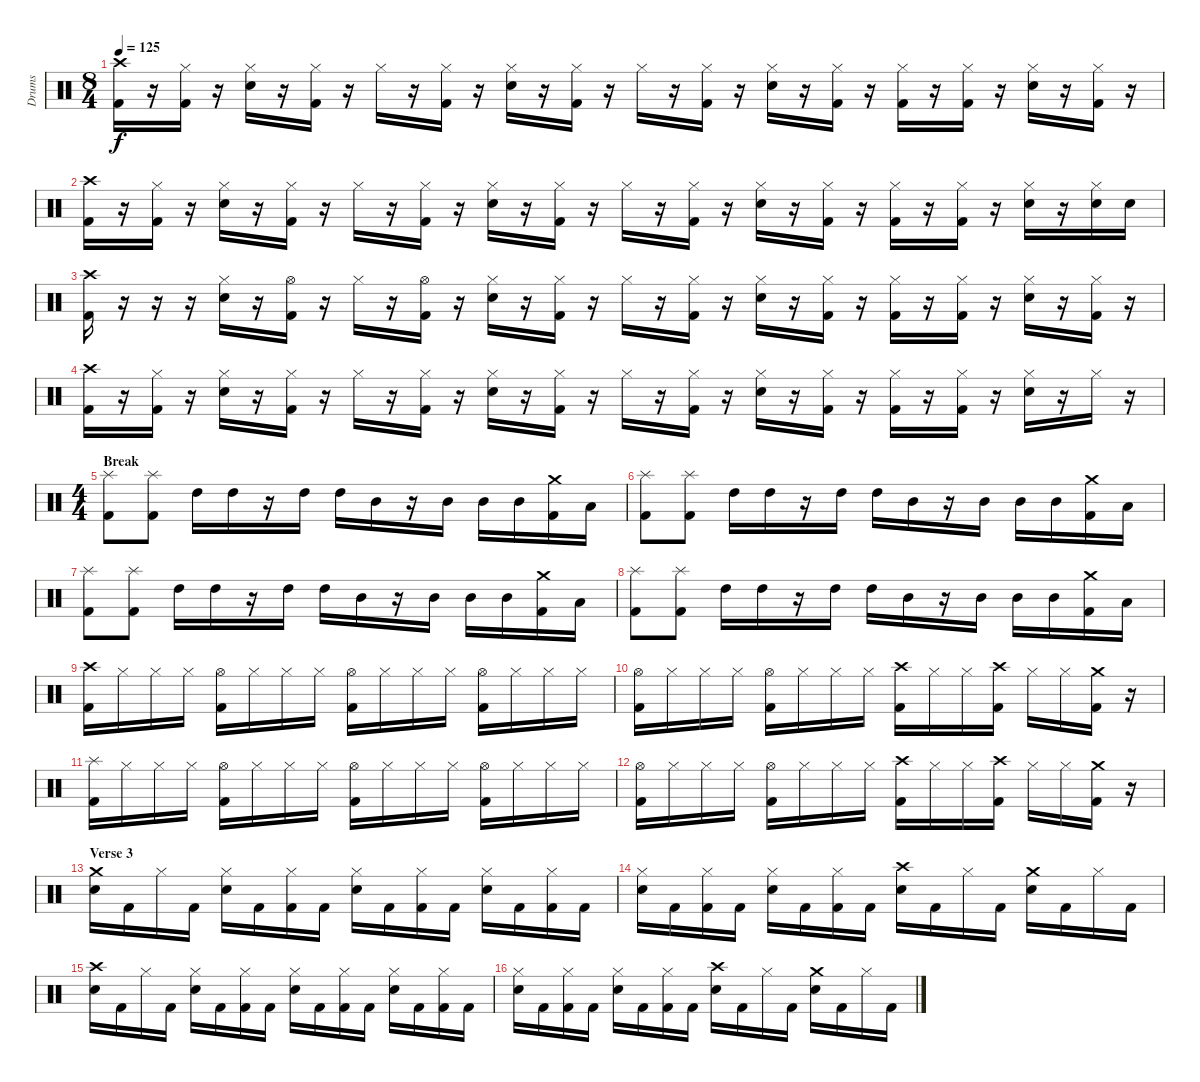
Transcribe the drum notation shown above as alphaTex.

\track ("Drums" "Drums") {instrument percussion}
\staff {score}
\articulation defaults
\ts (8 4)
\tempo 125
\clef neutral
\ks c
("Crash high (hit)" "Kick (hit) 2").16{dy f} r.16 ("Hi-Hat (closed)" "Kick (hit) 2").16 r.16 ("Hi-Hat (closed)" "Electric Snare (hit)").16 r.16 ("Hi-Hat (closed)" "Kick (hit) 2").16 r.16 "Hi-Hat (closed)".16 r.16 ("Hi-Hat (closed)" "Kick (hit) 2").16 r.16 ("Hi-Hat (closed)" "Electric Snare (hit)").16 r.16 ("Hi-Hat (closed)" "Kick (hit) 2").16 r.16 "Hi-Hat (closed)".16 r.16 ("Hi-Hat (closed)" "Kick (hit) 2").16 r.16 ("Hi-Hat (closed)" "Electric Snare (hit)").16 r.16 ("Hi-Hat (closed)" "Kick (hit) 2").16 r.16 ("Hi-Hat (closed)" "Kick (hit) 2").16 r.16 ("Hi-Hat (closed)" "Kick (hit) 2").16 r.16 ("Hi-Hat (closed)" "Electric Snare (hit)").16 r.16 ("Hi-Hat (closed)" "Kick (hit) 2").16 r.16 |
("Crash high (hit)" "Kick (hit) 2").16 r.16 ("Hi-Hat (closed)" "Kick (hit) 2").16 r.16 ("Hi-Hat (closed)" "Electric Snare (hit)").16 r.16 ("Hi-Hat (closed)" "Kick (hit) 2").16 r.16 "Hi-Hat (closed)".16 r.16 ("Hi-Hat (closed)" "Kick (hit) 2").16 r.16 ("Hi-Hat (closed)" "Electric Snare (hit)").16 r.16 ("Hi-Hat (closed)" "Kick (hit) 2").16 r.16 "Hi-Hat (closed)".16 r.16 ("Hi-Hat (closed)" "Kick (hit) 2").16 r.16 ("Hi-Hat (closed)" "Electric Snare (hit)").16 r.16 ("Hi-Hat (closed)" "Kick (hit) 2").16 r.16 ("Hi-Hat (closed)" "Kick (hit) 2").16 r.16 ("Hi-Hat (closed)" "Kick (hit) 2").16 r.16 ("Hi-Hat (closed)" "Electric Snare (hit)").16 r.16 ("Hi-Hat (closed)" "Electric Snare (hit)").16 "Electric Snare (hit)".16 |
("Crash high (hit)" "Kick (hit) 2").16 r.16 r.16 r.16 ("Hi-Hat (closed)" "Electric Snare (hit)").16 r.16 ("Hi-Hat (open)" "Kick (hit) 2").16 r.16 "Hi-Hat (closed)".16 r.16 ("Hi-Hat (open)" "Kick (hit) 2").16 r.16 ("Hi-Hat (closed)" "Electric Snare (hit)").16 r.16 ("Hi-Hat (closed)" "Kick (hit) 2").16 r.16 "Hi-Hat (closed)".16 r.16 ("Hi-Hat (closed)" "Kick (hit) 2").16 r.16 ("Hi-Hat (closed)" "Electric Snare (hit)").16 r.16 ("Hi-Hat (closed)" "Kick (hit) 2").16 r.16 ("Hi-Hat (closed)" "Kick (hit) 2").16 r.16 ("Hi-Hat (closed)" "Kick (hit) 2").16 r.16 ("Hi-Hat (closed)" "Electric Snare (hit)").16 r.16 ("Hi-Hat (closed)" "Kick (hit) 2").16 r.16 |
("Crash high (hit)" "Kick (hit) 2").16 r.16 ("Hi-Hat (closed)" "Kick (hit) 2").16 r.16 ("Hi-Hat (closed)" "Electric Snare (hit)").16 r.16 ("Hi-Hat (closed)" "Kick (hit) 2").16 r.16 "Hi-Hat (closed)".16 r.16 ("Hi-Hat (closed)" "Kick (hit) 2").16 r.16 ("Hi-Hat (closed)" "Electric Snare (hit)").16 r.16 ("Hi-Hat (closed)" "Kick (hit) 2").16 r.16 "Hi-Hat (closed)".16 r.16 ("Hi-Hat (closed)" "Kick (hit) 2").16 r.16 ("Hi-Hat (closed)" "Electric Snare (hit)").16 r.16 ("Hi-Hat (closed)" "Kick (hit) 2").16 r.16 ("Hi-Hat (closed)" "Kick (hit) 2").16 r.16 ("Hi-Hat (closed)" "Kick (hit) 2").16 r.16 ("Hi-Hat (closed)" "Electric Snare (hit)").16 r.16 "Hi-Hat (closed)".16 r.16 |
\ts (4 4)
\section ("" "Break")
("Splash (hit)" "Kick (hit) 2").8 ("Splash (hit)" "Kick (hit) 2").8 "High Tom (hit)".16 "High Tom (hit)".16 r.16 "High Tom (hit)".16 "High Tom (hit)".16 "Mid Tom (hit)".16 r.16 "Mid Tom (hit)".16 "Mid Tom (hit)".16 "Mid Tom (hit)".16 ("Crash medium (hit)" "Kick (hit) 2").16 "Low Tom (hit)".16 |
("Splash (hit)" "Kick (hit) 2").8 ("Splash (hit)" "Kick (hit) 2").8 "High Tom (hit)".16 "High Tom (hit)".16 r.16 "High Tom (hit)".16 "High Tom (hit)".16 "Mid Tom (hit)".16 r.16 "Mid Tom (hit)".16 "Mid Tom (hit)".16 "Mid Tom (hit)".16 ("Crash medium (hit)" "Kick (hit) 2").16 "Low Tom (hit)".16 |
("Splash (hit)" "Kick (hit) 2").8 ("Splash (hit)" "Kick (hit) 2").8 "High Tom (hit)".16 "High Tom (hit)".16 r.16 "High Tom (hit)".16 "High Tom (hit)".16 "Mid Tom (hit)".16 r.16 "Mid Tom (hit)".16 "Mid Tom (hit)".16 "Mid Tom (hit)".16 ("Crash medium (hit)" "Kick (hit) 2").16 "Low Tom (hit)".16 |
("Splash (hit)" "Kick (hit) 2").8 ("Splash (hit)" "Kick (hit) 2").8 "High Tom (hit)".16 "High Tom (hit)".16 r.16 "High Tom (hit)".16 "High Tom (hit)".16 "Mid Tom (hit)".16 r.16 "Mid Tom (hit)".16 "Mid Tom (hit)".16 "Mid Tom (hit)".16 ("Crash medium (hit)" "Kick (hit) 2").16 "Low Tom (hit)".16 |
("Crash high (hit)" "Kick (hit) 2").16 "Hi-Hat (closed)".16 "Hi-Hat (closed)".16 "Hi-Hat (closed)".16 ("Hi-Hat (open)" "Kick (hit) 2").16 "Hi-Hat (closed)".16 "Hi-Hat (closed)".16 "Hi-Hat (closed)".16 ("Hi-Hat (open)" "Kick (hit) 2").16 "Hi-Hat (closed)".16 "Hi-Hat (closed)".16 "Hi-Hat (closed)".16 ("Hi-Hat (open)" "Kick (hit) 2").16 "Hi-Hat (closed)".16 "Hi-Hat (closed)".16 "Hi-Hat (closed)".16 |
("Hi-Hat (open)" "Kick (hit) 2").16 "Hi-Hat (closed)".16 "Hi-Hat (closed)".16 "Hi-Hat (closed)".16 ("Hi-Hat (open)" "Kick (hit) 2").16 "Hi-Hat (closed)".16 "Hi-Hat (closed)".16 "Hi-Hat (closed)".16 ("Crash high (hit)" "Kick (hit) 2").16 "Hi-Hat (closed)".16 "Hi-Hat (closed)".16 ("Crash high (hit)" "Kick (hit) 2").16 "Hi-Hat (closed)".16 "Hi-Hat (closed)".16 ("Crash medium (hit)" "Kick (hit) 2").16 r.16 |
("Splash (hit)" "Kick (hit) 2").16 "Hi-Hat (closed)".16 "Hi-Hat (closed)".16 "Hi-Hat (closed)".16 ("Hi-Hat (open)" "Kick (hit) 2").16 "Hi-Hat (closed)".16 "Hi-Hat (closed)".16 "Hi-Hat (closed)".16 ("Hi-Hat (open)" "Kick (hit) 2").16 "Hi-Hat (closed)".16 "Hi-Hat (closed)".16 "Hi-Hat (closed)".16 ("Hi-Hat (open)" "Kick (hit) 2").16 "Hi-Hat (closed)".16 "Hi-Hat (closed)".16 "Hi-Hat (closed)".16 |
("Hi-Hat (open)" "Kick (hit) 2").16 "Hi-Hat (closed)".16 "Hi-Hat (closed)".16 "Hi-Hat (closed)".16 ("Hi-Hat (open)" "Kick (hit) 2").16 "Hi-Hat (closed)".16 "Hi-Hat (closed)".16 "Hi-Hat (closed)".16 ("Crash high (hit)" "Kick (hit) 2").16 "Hi-Hat (closed)".16 "Hi-Hat (closed)".16 ("Crash high (hit)" "Kick (hit) 2").16 "Hi-Hat (closed)".16 "Hi-Hat (closed)".16 ("Crash medium (hit)" "Kick (hit) 2").16 r.16 |
\section ("" "Verse 3")
("Crash medium (hit)" "Electric Snare (hit)").16 "Kick (hit) 2".16 "Hi-Hat (closed)".16 "Kick (hit) 2".16 ("Hi-Hat (closed)" "Electric Snare (hit)").16 "Kick (hit) 2".16 ("Hi-Hat (closed)" "Kick (hit) 2").16 "Kick (hit) 2".16 ("Hi-Hat (closed)" "Electric Snare (hit)").16 "Kick (hit) 2".16 ("Hi-Hat (closed)" "Kick (hit) 2").16 "Kick (hit) 2".16 ("Hi-Hat (closed)" "Electric Snare (hit)").16 "Kick (hit) 2".16 ("Hi-Hat (closed)" "Kick (hit) 2").16 "Kick (hit) 2".16 |
("Hi-Hat (closed)" "Electric Snare (hit)").16 "Kick (hit) 2".16 ("Hi-Hat (closed)" "Kick (hit) 2").16 "Kick (hit) 2".16 ("Hi-Hat (closed)" "Electric Snare (hit)").16 "Kick (hit) 2".16 ("Hi-Hat (closed)" "Kick (hit) 2").16 "Kick (hit) 2".16 ("Crash high (hit)" "Electric Snare (hit)").16 "Kick (hit) 2".16 "Hi-Hat (closed)".16 "Kick (hit) 2".16 ("Crash medium (hit)" "Electric Snare (hit)").16 "Kick (hit) 2".16 "Hi-Hat (closed)".16 "Kick (hit) 2".16 |
("Crash high (hit)" "Electric Snare (hit)").16 "Kick (hit) 2".16 "Hi-Hat (closed)".16 "Kick (hit) 2".16 ("Hi-Hat (closed)" "Electric Snare (hit)").16 "Kick (hit) 2".16 ("Hi-Hat (closed)" "Kick (hit) 2").16 "Kick (hit) 2".16 ("Hi-Hat (closed)" "Electric Snare (hit)").16 "Kick (hit) 2".16 ("Hi-Hat (closed)" "Kick (hit) 2").16 "Kick (hit) 2".16 ("Hi-Hat (closed)" "Electric Snare (hit)").16 "Kick (hit) 2".16 ("Hi-Hat (closed)" "Kick (hit) 2").16 "Kick (hit) 2".16 |
("Hi-Hat (closed)" "Electric Snare (hit)").16 "Kick (hit) 2".16 ("Hi-Hat (closed)" "Kick (hit) 2").16 "Kick (hit) 2".16 ("Hi-Hat (closed)" "Electric Snare (hit)").16 "Kick (hit) 2".16 ("Hi-Hat (closed)" "Kick (hit) 2").16 "Kick (hit) 2".16 ("Crash high (hit)" "Electric Snare (hit)").16 "Kick (hit) 2".16 "Hi-Hat (closed)".16 "Kick (hit) 2".16 ("Crash medium (hit)" "Electric Snare (hit)").16 "Kick (hit) 2".16 "Hi-Hat (closed)".16 "Kick (hit) 2".16
